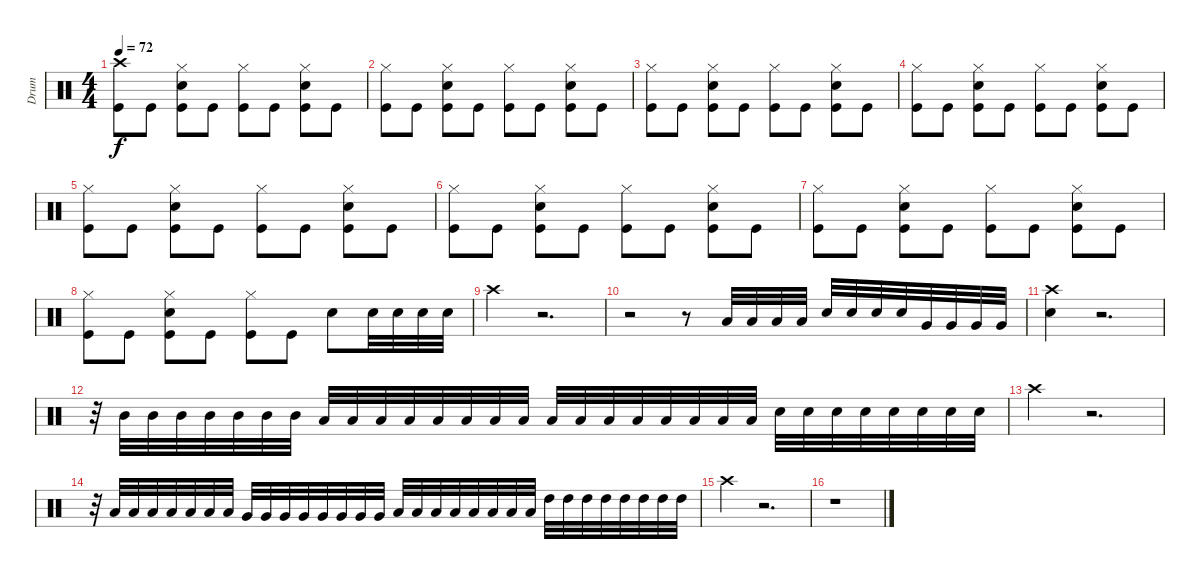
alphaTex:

\track ("Drum" "Drum") {instrument percussion}
\staff {score}
\articulation defaults
\ts (4 4)
\tempo 72
\clef neutral
\ks c
("Crash high (hit)" "Kick (hit)").8{dy f} "Kick (hit)".8 ("Kick (hit)" "Snare (hit) 2" "Hi-Hat (closed)").8 "Kick (hit)".8 ("Kick (hit)" "Hi-Hat (closed)").8 "Kick (hit)".8 ("Kick (hit)" "Snare (hit) 2" "Hi-Hat (closed)").8 "Kick (hit)".8 |
("Hi-Hat (closed)" "Kick (hit)").8 "Kick (hit)".8 ("Kick (hit)" "Snare (hit) 2" "Hi-Hat (closed)").8 "Kick (hit)".8 ("Kick (hit)" "Hi-Hat (closed)").8 "Kick (hit)".8 ("Kick (hit)" "Snare (hit) 2" "Hi-Hat (closed)").8 "Kick (hit)".8 |
("Hi-Hat (closed)" "Kick (hit)").8 "Kick (hit)".8 ("Kick (hit)" "Snare (hit) 2" "Hi-Hat (closed)").8 "Kick (hit)".8 ("Kick (hit)" "Hi-Hat (closed)").8 "Kick (hit)".8 ("Kick (hit)" "Snare (hit) 2" "Hi-Hat (closed)").8 "Kick (hit)".8 |
("Hi-Hat (closed)" "Kick (hit)").8 "Kick (hit)".8 ("Kick (hit)" "Snare (hit) 2" "Hi-Hat (closed)").8 "Kick (hit)".8 ("Kick (hit)" "Hi-Hat (closed)").8 "Kick (hit)".8 ("Kick (hit)" "Snare (hit) 2" "Hi-Hat (closed)").8 "Kick (hit)".8 |
("Hi-Hat (closed)" "Kick (hit)").8 "Kick (hit)".8 ("Kick (hit)" "Snare (hit) 2" "Hi-Hat (closed)").8 "Kick (hit)".8 ("Kick (hit)" "Hi-Hat (closed)").8 "Kick (hit)".8 ("Kick (hit)" "Snare (hit) 2" "Hi-Hat (closed)").8 "Kick (hit)".8 |
("Hi-Hat (closed)" "Kick (hit)").8 "Kick (hit)".8 ("Kick (hit)" "Snare (hit) 2" "Hi-Hat (closed)").8 "Kick (hit)".8 ("Kick (hit)" "Hi-Hat (closed)").8 "Kick (hit)".8 ("Kick (hit)" "Snare (hit) 2" "Hi-Hat (closed)").8 "Kick (hit)".8 |
("Hi-Hat (closed)" "Kick (hit)").8 "Kick (hit)".8 ("Kick (hit)" "Snare (hit) 2" "Hi-Hat (closed)").8 "Kick (hit)".8 ("Kick (hit)" "Hi-Hat (closed)").8 "Kick (hit)".8 ("Kick (hit)" "Snare (hit) 2" "Hi-Hat (closed)").8 "Kick (hit)".8 |
("Kick (hit)" "Hi-Hat (closed)").8 "Kick (hit)".8 ("Kick (hit)" "Snare (hit) 2" "Hi-Hat (closed)").8 "Kick (hit)".8 ("Kick (hit)" "Hi-Hat (closed)").8 "Kick (hit)".8 "Snare (hit) 2".8 "Snare (hit) 2".32 "Snare (hit) 2".32 "Snare (hit) 2".32 "Snare (hit) 2".32 |
"Crash high (hit)".4 r.2{d} |
r.2 r.8 "Low Tom (hit)".32 "Low Tom (hit)".32 "Low Tom (hit)".32 "Low Tom (hit)".32 "Snare (hit) 2".32 "Snare (hit) 2".32 "Snare (hit) 2".32 "Snare (hit) 2".32 "Very Low Tom (hit)".32 "Very Low Tom (hit)".32 "Very Low Tom (hit)".32 "Very Low Tom (hit)".32 |
("Crash high (hit)" "Snare (hit) 2").4 r.2{d} |
r.32 "Mid Tom (hit)".32 "Mid Tom (hit)".32 "Mid Tom (hit)".32 "Mid Tom (hit)".32 "Mid Tom (hit)".32 "Mid Tom (hit)".32 "Mid Tom (hit)".32 "Low Tom (hit)".32 "Low Tom (hit)".32 "Low Tom (hit)".32 "Low Tom (hit)".32 "Low Floor Tom (hit)".32 "Low Floor Tom (hit)".32 "Low Floor Tom (hit)".32 "Low Floor Tom (hit)".32 "Low Floor Tom (hit)".32 "Low Floor Tom (hit)".32 "Low Floor Tom (hit)".32 "Low Floor Tom (hit)".32 "Low Tom (hit)".32 "Low Tom (hit)".32 "Low Tom (hit)".32 "Low Tom (hit)".32 "Snare (hit) 2".32 "Snare (hit) 2".32 "Snare (hit) 2".32 "Snare (hit) 2".32 "Snare (hit) 2".32 "Snare (hit) 2".32 "Snare (hit) 2".32 "Snare (hit) 2".32 |
"Crash high (hit)".4 r.2{d} |
r.32 "Low Tom (hit)".32 "Low Tom (hit)".32 "Low Tom (hit)".32 "Low Tom (hit)".32 "Low Tom (hit)".32 "Low Tom (hit)".32 "Low Tom (hit)".32 "Very Low Tom (hit)".32 "Very Low Tom (hit)".32 "Very Low Tom (hit)".32 "Very Low Tom (hit)".32 "Very Low Tom (hit)".32 "Very Low Tom (hit)".32 "Very Low Tom (hit)".32 "Very Low Tom (hit)".32 "Low Tom (hit)".32 "Low Tom (hit)".32 "Low Tom (hit)".32 "Low Tom (hit)".32 "Low Tom (hit)".32 "Low Tom (hit)".32 "Low Tom (hit)".32 "Low Tom (hit)".32 "High Tom (hit)".32 "High Tom (hit)".32 "High Tom (hit)".32 "High Tom (hit)".32 "High Tom (hit)".32 "High Tom (hit)".32 "High Tom (hit)".32 "High Tom (hit)".32 |
"Crash high (hit)".4 r.2{d} |
r.1
